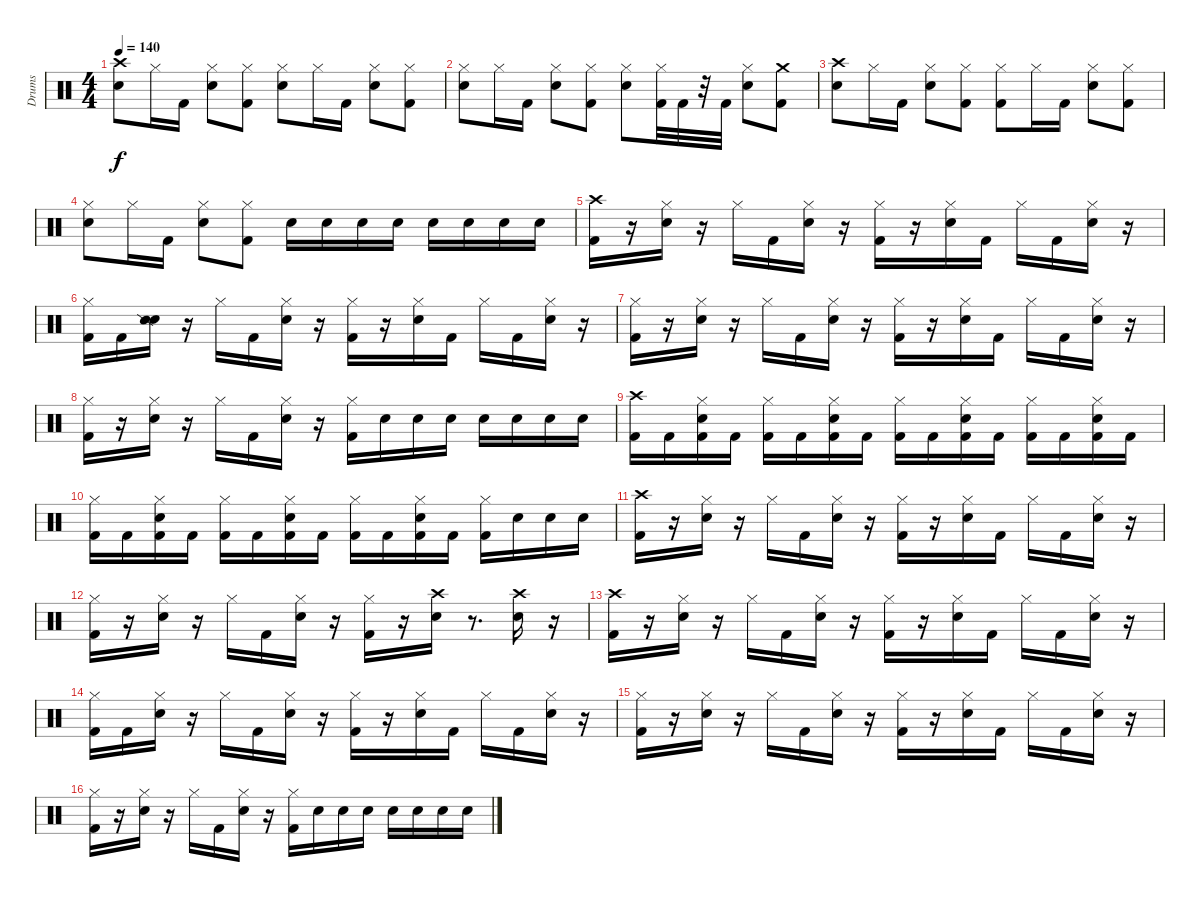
\track ("Drums" "Drums") {instrument percussion}
\staff {score}
\articulation defaults
\ts (4 4)
\tempo 140
\clef neutral
\ks c
("Snare (hit) 2" "Crash high (hit)").8{dy f} "Hi-Hat (closed)".16 "Kick (hit) 2".16 ("Snare (hit) 2" "Hi-Hat (closed)").8 ("Kick (hit) 2" "Hi-Hat (closed)").8 ("Snare (hit) 2" "Hi-Hat (closed)").8 "Hi-Hat (closed)".16 "Kick (hit) 2".16 ("Snare (hit) 2" "Hi-Hat (closed)").8 ("Kick (hit) 2" "Hi-Hat (closed)").8 |
("Snare (hit) 2" "Hi-Hat (closed)").8 "Hi-Hat (closed)".16 "Kick (hit) 2".16 ("Snare (hit) 2" "Hi-Hat (closed)").8 ("Kick (hit) 2" "Hi-Hat (closed)").8 ("Snare (hit) 2" "Hi-Hat (closed)").8 ("Kick (hit) 2" "Hi-Hat (closed)").32 "Kick (hit) 2".32 r.32 "Kick (hit) 2".32 ("Snare (hit) 2" "Hi-Hat (closed)").8 ("Kick (hit) 2" "Crash medium (hit)").8 |
("Snare (hit) 2" "Crash high (hit)").8 "Hi-Hat (closed)".16 "Kick (hit) 2".16 ("Snare (hit) 2" "Hi-Hat (closed)").8 ("Kick (hit) 2" "Hi-Hat (closed)").8 ("Kick (hit) 2" "Hi-Hat (closed)").8 "Hi-Hat (closed)".16 "Kick (hit) 2".16 ("Snare (hit) 2" "Hi-Hat (closed)").8 ("Kick (hit) 2" "Hi-Hat (closed)").8 |
("Snare (hit) 2" "Hi-Hat (closed)").8 "Hi-Hat (closed)".16 "Kick (hit) 2".16 ("Snare (hit) 2" "Hi-Hat (closed)").8 ("Kick (hit) 2" "Hi-Hat (closed)").8 "Snare (hit) 2".16 "Snare (hit) 2".16 "Snare (hit) 2".16 "Snare (hit) 2".16 "Snare (hit) 2".16 "Snare (hit) 2".16 "Snare (hit) 2".16 "Snare (hit) 2".16 |
("Kick (hit) 2" "Crash high (hit)").16 r.16 ("Snare (hit) 2" "Hi-Hat (closed)").16 r.16 "Hi-Hat (closed)".16 "Kick (hit) 2".16 ("Snare (hit) 2" "Hi-Hat (closed)").16 r.16 ("Kick (hit) 2" "Hi-Hat (closed)").16 r.16 ("Snare (hit) 2" "Hi-Hat (closed)").16 "Kick (hit) 2".16 "Hi-Hat (closed)".16 "Kick (hit) 2".16 ("Snare (hit) 2" "Hi-Hat (closed)").16 r.16 |
("Kick (hit) 2" "Hi-Hat (closed)").16 "Kick (hit) 2".16 ("Snare (hit) 2" "Snare (side stick) 2").16 r.16 "Hi-Hat (closed)".16 "Kick (hit) 2".16 ("Snare (hit) 2" "Hi-Hat (closed)").16 r.16 ("Kick (hit) 2" "Hi-Hat (closed)").16 r.16 ("Snare (hit) 2" "Hi-Hat (closed)").16 "Kick (hit) 2".16 "Hi-Hat (closed)".16 "Kick (hit) 2".16 ("Snare (hit) 2" "Hi-Hat (closed)").16 r.16 |
("Kick (hit) 2" "Hi-Hat (closed)").16 r.16 ("Snare (hit) 2" "Hi-Hat (closed)").16 r.16 "Hi-Hat (closed)".16 "Kick (hit) 2".16 ("Snare (hit) 2" "Hi-Hat (closed)").16 r.16 ("Kick (hit) 2" "Hi-Hat (closed)").16 r.16 ("Snare (hit) 2" "Hi-Hat (closed)").16 "Kick (hit) 2".16 "Hi-Hat (closed)".16 "Kick (hit) 2".16 ("Snare (hit) 2" "Hi-Hat (closed)").16 r.16 |
("Kick (hit) 2" "Hi-Hat (closed)").16 r.16 ("Snare (hit) 2" "Hi-Hat (closed)").16 r.16 "Hi-Hat (closed)".16 "Kick (hit) 2".16 ("Snare (hit) 2" "Hi-Hat (closed)").16 r.16 ("Kick (hit) 2" "Hi-Hat (closed)").16 "Snare (hit) 2".16 "Snare (hit) 2".16 "Snare (hit) 2".16 "Snare (hit) 2".16 "Snare (hit) 2".16 "Snare (hit) 2".16 "Snare (hit) 2".16 |
("Kick (hit) 2" "Crash high (hit)").16 "Kick (hit) 2".16 ("Kick (hit) 2" "Snare (hit) 2" "Hi-Hat (closed)").16 "Kick (hit) 2".16 ("Kick (hit) 2" "Hi-Hat (closed)").16 "Kick (hit) 2".16 ("Kick (hit) 2" "Snare (hit) 2" "Hi-Hat (closed)").16 "Kick (hit) 2".16 ("Kick (hit) 2" "Hi-Hat (closed)").16 "Kick (hit) 2".16 ("Kick (hit) 2" "Snare (hit) 2" "Hi-Hat (closed)").16 "Kick (hit) 2".16 ("Kick (hit) 2" "Hi-Hat (closed)").16 "Kick (hit) 2".16 ("Kick (hit) 2" "Snare (hit) 2" "Hi-Hat (closed)").16 "Kick (hit) 2".16 |
("Kick (hit) 2" "Hi-Hat (closed)").16 "Kick (hit) 2".16 ("Kick (hit) 2" "Snare (hit) 2" "Hi-Hat (closed)").16 "Kick (hit) 2".16 ("Kick (hit) 2" "Hi-Hat (closed)").16 "Kick (hit) 2".16 ("Kick (hit) 2" "Snare (hit) 2" "Hi-Hat (closed)").16 "Kick (hit) 2".16 ("Kick (hit) 2" "Hi-Hat (closed)").16 "Kick (hit) 2".16 ("Kick (hit) 2" "Snare (hit) 2" "Hi-Hat (closed)").16 "Kick (hit) 2".16 ("Kick (hit) 2" "Hi-Hat (closed)").16 "Snare (hit) 2".16 "Snare (hit) 2".16 "Snare (hit) 2".16 |
("Kick (hit) 2" "Crash high (hit)").16 r.16 ("Snare (hit) 2" "Hi-Hat (closed)").16 r.16 "Hi-Hat (closed)".16 "Kick (hit) 2".16 ("Snare (hit) 2" "Hi-Hat (closed)").16 r.16 ("Kick (hit) 2" "Hi-Hat (closed)").16 r.16 ("Snare (hit) 2" "Hi-Hat (closed)").16 "Kick (hit) 2".16 "Hi-Hat (closed)".16 "Kick (hit) 2".16 ("Snare (hit) 2" "Hi-Hat (closed)").16 r.16 |
("Kick (hit) 2" "Hi-Hat (closed)").16 r.16 ("Snare (hit) 2" "Hi-Hat (closed)").16 r.16 "Hi-Hat (closed)".16 "Kick (hit) 2".16 ("Snare (hit) 2" "Hi-Hat (closed)").16 r.16 ("Kick (hit) 2" "Hi-Hat (closed)").16 r.16 ("Snare (hit) 2" "Crash high (hit)").16 r.8{d} ("Snare (hit) 2" "Crash high (hit)").16 r.16 |
("Kick (hit) 2" "Crash high (hit)").16 r.16 ("Snare (hit) 2" "Hi-Hat (closed)").16 r.16 "Hi-Hat (closed)".16 "Kick (hit) 2".16 ("Snare (hit) 2" "Hi-Hat (closed)").16 r.16 ("Kick (hit) 2" "Hi-Hat (closed)").16 r.16 ("Snare (hit) 2" "Hi-Hat (closed)").16 "Kick (hit) 2".16 "Hi-Hat (closed)".16 "Kick (hit) 2".16 ("Snare (hit) 2" "Hi-Hat (closed)").16 r.16 |
("Kick (hit) 2" "Hi-Hat (closed)").16 "Kick (hit) 2".16 ("Snare (hit) 2" "Hi-Hat (closed)").16 r.16 "Hi-Hat (closed)".16 "Kick (hit) 2".16 ("Snare (hit) 2" "Hi-Hat (closed)").16 r.16 ("Kick (hit) 2" "Hi-Hat (closed)").16 r.16 ("Snare (hit) 2" "Hi-Hat (closed)").16 "Kick (hit) 2".16 "Hi-Hat (closed)".16 "Kick (hit) 2".16 ("Snare (hit) 2" "Hi-Hat (closed)").16 r.16 |
("Kick (hit) 2" "Hi-Hat (closed)").16 r.16 ("Snare (hit) 2" "Hi-Hat (closed)").16 r.16 "Hi-Hat (closed)".16 "Kick (hit) 2".16 ("Snare (hit) 2" "Hi-Hat (closed)").16 r.16 ("Kick (hit) 2" "Hi-Hat (closed)").16 r.16 ("Snare (hit) 2" "Hi-Hat (closed)").16 "Kick (hit) 2".16 "Hi-Hat (closed)".16 "Kick (hit) 2".16 ("Snare (hit) 2" "Hi-Hat (closed)").16 r.16 |
("Kick (hit) 2" "Hi-Hat (closed)").16 r.16 ("Snare (hit) 2" "Hi-Hat (closed)").16 r.16 "Hi-Hat (closed)".16 "Kick (hit) 2".16 ("Snare (hit) 2" "Hi-Hat (closed)").16 r.16 ("Kick (hit) 2" "Hi-Hat (closed)").16 "Snare (hit) 2".16 "Snare (hit) 2".16 "Snare (hit) 2".16 "Snare (hit) 2".16 "Snare (hit) 2".16 "Snare (hit) 2".16 "Snare (hit) 2".16
